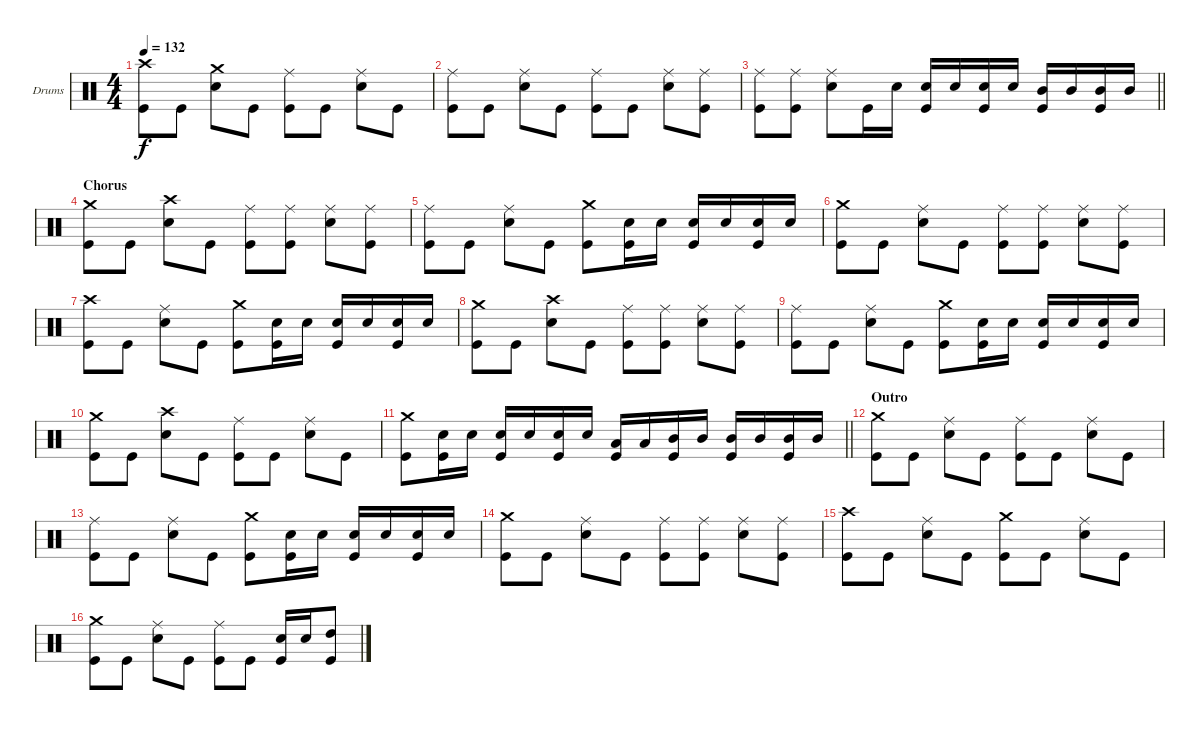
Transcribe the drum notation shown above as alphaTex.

\bracketExtendMode groupsimilarinstruments
\firstSystemTrackNameOrientation horizontal
\otherSystemsTrackNameOrientation horizontal
\track ("Drumkit" "Drums") {instrument percussion}
\staff {score}
\articulation defaults
\ts (4 4)
\tempo 132
\clef neutral
\ks c
("Crash high (hit)" "Kick (hit)").8{dy f} "Kick (hit)".8 ("Crash medium (hit)" "Snare (hit) 2").8 "Kick (hit)".8 ("Ride (middle)" "Kick (hit)").8 "Kick (hit)".8 ("Ride (middle)" "Snare (hit) 2").8 "Kick (hit)".8 |
("Ride (middle)" "Kick (hit)").8 "Kick (hit)".8 ("Ride (middle)" "Snare (hit) 2").8 "Kick (hit)".8 ("Ride (middle)" "Kick (hit)").8 "Kick (hit)".8 ("Ride (middle)" "Snare (hit) 2").8 ("Ride (middle)" "Kick (hit)").8 |
\barLineRight lightlight
("Ride (middle)" "Kick (hit)").8 ("Ride (middle)" "Kick (hit)").8 ("Ride (middle)" "Snare (hit) 2").8 "Kick (hit)".16 "Snare (hit) 2".16 ("Snare (hit) 2" "Kick (hit)").16 "Snare (hit) 2".16 ("Snare (hit) 2" "Kick (hit)").16 "Snare (hit) 2".16 ("Mid Tom (hit)" "Kick (hit)").16 "Mid Tom (hit)".16 ("Mid Tom (hit)" "Kick (hit)").16 "Mid Tom (hit)".16 |
\section ("" "Chorus")
("Crash medium (hit)" "Kick (hit)").8 "Kick (hit)".8 ("Crash high (hit)" "Snare (hit) 2").8 "Kick (hit)".8 ("Ride (middle)" "Kick (hit)").8 ("Ride (middle)" "Kick (hit)").8 ("Ride (middle)" "Snare (hit) 2").8 ("Ride (middle)" "Kick (hit)").8 |
("Ride (middle)" "Kick (hit)").8 "Kick (hit)".8 ("Ride (middle)" "Snare (hit) 2").8 "Kick (hit)".8 ("Crash medium (hit)" "Kick (hit)").8 ("Snare (hit) 2" "Kick (hit)").16 "Snare (hit) 2".16 ("Snare (hit) 2" "Kick (hit)").16 "Snare (hit) 2".16 ("Snare (hit) 2" "Kick (hit)").16 "Snare (hit) 2".16 |
("Crash medium (hit)" "Kick (hit)").8 "Kick (hit)".8 ("Ride (middle)" "Snare (hit) 2").8 "Kick (hit)".8 ("Ride (middle)" "Kick (hit)").8 ("Ride (middle)" "Kick (hit)").8 ("Ride (middle)" "Snare (hit) 2").8 ("Ride (middle)" "Kick (hit)").8 |
("Crash high (hit)" "Kick (hit)").8 "Kick (hit)".8 ("Ride (middle)" "Snare (hit) 2").8 "Kick (hit)".8 ("Crash medium (hit)" "Kick (hit)").8 ("Snare (hit) 2" "Kick (hit)").16 "Snare (hit) 2".16 ("Snare (hit) 2" "Kick (hit)").16 "Snare (hit) 2".16 ("Snare (hit) 2" "Kick (hit)").16 "Snare (hit) 2".16 |
("Crash medium (hit)" "Kick (hit)").8 "Kick (hit)".8 ("Crash high (hit)" "Snare (hit) 2").8 "Kick (hit)".8 ("Ride (middle)" "Kick (hit)").8 ("Ride (middle)" "Kick (hit)").8 ("Ride (middle)" "Snare (hit) 2").8 ("Ride (middle)" "Kick (hit)").8 |
("Ride (middle)" "Kick (hit)").8 "Kick (hit)".8 ("Ride (middle)" "Snare (hit) 2").8 "Kick (hit)".8 ("Crash medium (hit)" "Kick (hit)").8 ("Snare (hit) 2" "Kick (hit)").16 "Snare (hit) 2".16 ("Snare (hit) 2" "Kick (hit)").16 "Snare (hit) 2".16 ("Snare (hit) 2" "Kick (hit)").16 "Snare (hit) 2".16 |
("Crash medium (hit)" "Kick (hit)").8 "Kick (hit)".8 ("Crash high (hit)" "Snare (hit) 2").8 "Kick (hit)".8 ("Ride (middle)" "Kick (hit)").8 "Kick (hit)".8 ("Ride (middle)" "Snare (hit) 2").8 "Kick (hit)".8 |
\barLineRight lightlight
("Crash medium (hit)" "Kick (hit)").8 ("Snare (hit) 2" "Kick (hit)").16 "Snare (hit) 2".16 ("Snare (hit) 2" "Kick (hit)").16 "Snare (hit) 2".16 ("Snare (hit) 2" "Kick (hit)").16 "Snare (hit) 2".16 ("Low Tom (hit)" "Kick (hit)").16 "Low Tom (hit)".16 ("Mid Tom (hit)" "Kick (hit)").16 "Mid Tom (hit)".16 ("Mid Tom (hit)" "Kick (hit)").16 "Mid Tom (hit)".16 ("Mid Tom (hit)" "Kick (hit)").16 "Mid Tom (hit)".16 |
\section ("" "Outro")
("Crash medium (hit)" "Kick (hit)").8 "Kick (hit)".8 ("Ride (middle)" "Snare (hit) 2").8 "Kick (hit)".8 ("Ride (middle)" "Kick (hit)").8 "Kick (hit)".8 ("Ride (middle)" "Snare (hit) 2").8 "Kick (hit)".8 |
("Ride (middle)" "Kick (hit)").8 "Kick (hit)".8 ("Ride (middle)" "Snare (hit) 2").8 "Kick (hit)".8 ("Crash medium (hit)" "Kick (hit)").8 ("Snare (hit) 2" "Kick (hit)").16 "Snare (hit) 2".16 ("Snare (hit) 2" "Kick (hit)").16 "Snare (hit) 2".16 ("Snare (hit) 2" "Kick (hit)").16 "Snare (hit) 2".16 |
("Crash medium (hit)" "Kick (hit)").8 "Kick (hit)".8 ("Ride (middle)" "Snare (hit) 2").8 "Kick (hit)".8 ("Ride (middle)" "Kick (hit)").8 ("Ride (middle)" "Kick (hit)").8 ("Ride (middle)" "Snare (hit) 2").8 ("Ride (middle)" "Kick (hit)").8 |
("Crash high (hit)" "Kick (hit)").8 "Kick (hit)".8 ("Ride (middle)" "Snare (hit) 2").8 "Kick (hit)".8 ("Crash medium (hit)" "Kick (hit)").8 "Kick (hit)".8 ("Ride (middle)" "Snare (hit) 2").8 "Kick (hit)".8 |
("Crash medium (hit)" "Kick (hit)").8 "Kick (hit)".8 ("Ride (middle)" "Snare (hit) 2").8 "Kick (hit)".8 ("Ride (middle)" "Kick (hit)").8 "Kick (hit)".8 ("Snare (hit) 2" "Kick (hit)").16 "Snare (hit) 2".16 ("High Tom (hit)" "Kick (hit)").8
